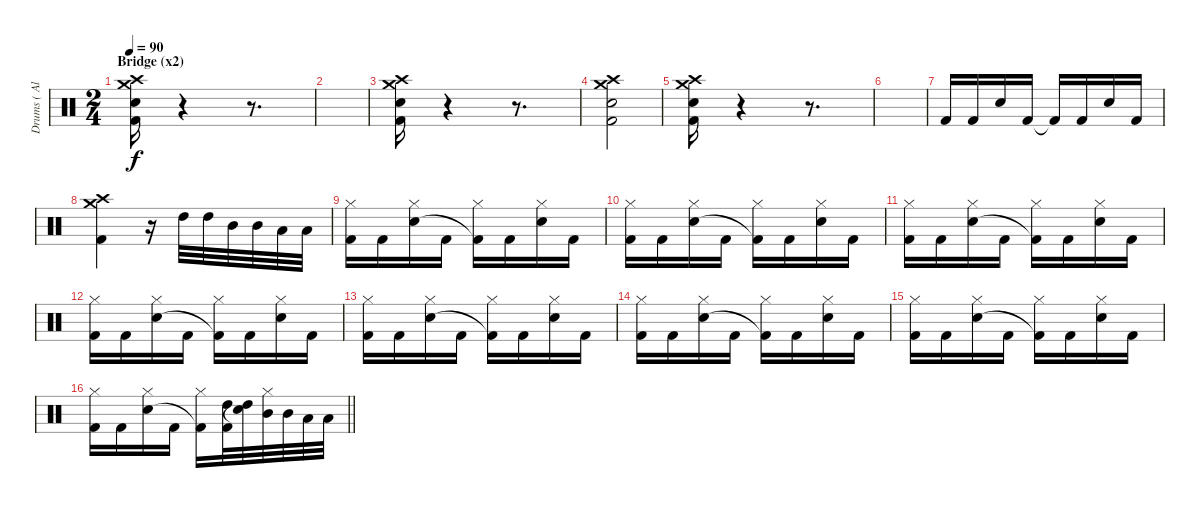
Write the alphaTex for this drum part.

\track ("Drums ( Alex Holzwarth)" "Drums ( Al") {instrument percussion}
\staff {score}
\articulation defaults
\ts (2 4)
\section ("" "Bridge (x2)")
\tempo 90
\clef neutral
\ks c
("Crash high (hit)" "Crash medium (hit)" "Snare (hit) 2" "Kick (hit) 2").16{dy f} r.4 r.8{d} |
|
("Crash high (hit)" "Crash medium (hit)" "Snare (hit) 2" "Kick (hit) 2").16 r.4 r.8{d} |
("Crash high (hit)" "Crash medium (hit)" "Snare (hit) 2" "Kick (hit) 2").2 |
("Crash high (hit)" "Crash medium (hit)" "Snare (hit) 2" "Kick (hit) 2").16 r.4 r.8{d} |
|
"Kick (hit) 2".16 "Kick (hit) 2".16 "Electric Snare (hit)".16 "Kick (hit) 2".16 "Kick (hit) 2"{t}.16 "Kick (hit) 2".16 "Electric Snare (hit)".16 "Kick (hit) 2".16 |
("Crash high (hit)" "Crash medium (hit)" "Kick (hit) 2").4 r.16 "High Tom (hit)".32 "High Tom (hit)".32 "Mid Tom (hit)".32 "Mid Tom (hit)".32 "Low Tom (hit)".32 "Low Tom (hit)".32 |
("Hi-Hat (closed)" "Kick (hit) 2").16 "Kick (hit) 2".16 ("Hi-Hat (closed)" "Electric Snare (hit)").16 "Kick (hit) 2".16 ("Hi-Hat (closed)" "Kick (hit) 2"{t}).16 "Kick (hit) 2".16 ("Hi-Hat (closed)" "Electric Snare (hit)").16 "Kick (hit) 2".16 |
("Hi-Hat (closed)" "Kick (hit) 2").16 "Kick (hit) 2".16 ("Hi-Hat (closed)" "Electric Snare (hit)").16 "Kick (hit) 2".16 ("Hi-Hat (closed)" "Kick (hit) 2"{t}).16 "Kick (hit) 2".16 ("Hi-Hat (closed)" "Electric Snare (hit)").16 "Kick (hit) 2".16 |
("Hi-Hat (closed)" "Kick (hit) 2").16 "Kick (hit) 2".16 ("Hi-Hat (closed)" "Electric Snare (hit)").16 "Kick (hit) 2".16 ("Hi-Hat (closed)" "Kick (hit) 2"{t}).16 "Kick (hit) 2".16 ("Hi-Hat (closed)" "Electric Snare (hit)").16 "Kick (hit) 2".16 |
("Hi-Hat (closed)" "Kick (hit) 2").16 "Kick (hit) 2".16 ("Hi-Hat (closed)" "Electric Snare (hit)").16 "Kick (hit) 2".16 ("Hi-Hat (closed)" "Kick (hit) 2"{t}).16 "Kick (hit) 2".16 ("Hi-Hat (closed)" "Electric Snare (hit)").16 "Kick (hit) 2".16 |
("Hi-Hat (closed)" "Kick (hit) 2").16 "Kick (hit) 2".16 ("Hi-Hat (closed)" "Electric Snare (hit)").16 "Kick (hit) 2".16 ("Hi-Hat (closed)" "Kick (hit) 2"{t}).16 "Kick (hit) 2".16 ("Hi-Hat (closed)" "Electric Snare (hit)").16 "Kick (hit) 2".16 |
("Hi-Hat (closed)" "Kick (hit) 2").16 "Kick (hit) 2".16 ("Hi-Hat (closed)" "Electric Snare (hit)").16 "Kick (hit) 2".16 ("Hi-Hat (closed)" "Kick (hit) 2"{t}).16 "Kick (hit) 2".16 ("Hi-Hat (closed)" "Electric Snare (hit)").16 "Kick (hit) 2".16 |
("Hi-Hat (closed)" "Kick (hit) 2").16 "Kick (hit) 2".16 ("Hi-Hat (closed)" "Electric Snare (hit)").16 "Kick (hit) 2".16 ("Hi-Hat (closed)" "Kick (hit) 2"{t}).16 "Kick (hit) 2".16 ("Hi-Hat (closed)" "Electric Snare (hit)").16 "Kick (hit) 2".16 |
\barLineRight lightlight
("Hi-Hat (closed)" "Kick (hit) 2").16 "Kick (hit) 2".16 ("Hi-Hat (closed)" "Electric Snare (hit)").16 "Kick (hit) 2".16 ("Hi-Hat (closed)" "Kick (hit) 2"{t}).16 ("High Tom (hit)" "Kick (hit) 2").32 ("High Tom (hit)" "Snare (hit)"{t}).32 ("Hi-Hat (closed)" "Mid Tom (hit)").32 "Mid Tom (hit)".32 "Low Tom (hit)".32 "Low Tom (hit)".32
